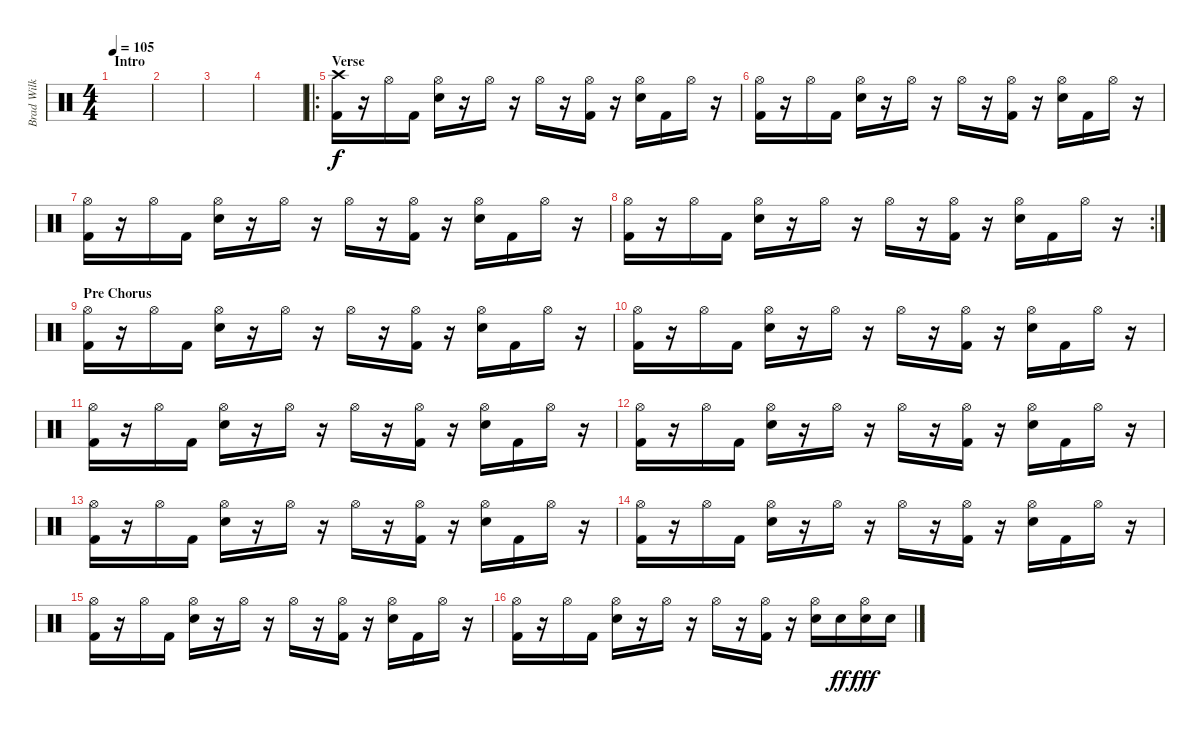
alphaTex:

\track ("Brad Wilk - Drums" "Brad Wilk ") {instrument percussion}
\staff {score}
\articulation defaults
\ts (4 4)
\section ("" "Intro")
\tempo 105
\clef neutral
\ks c
|
|
|
|
\ro
\section ("" "Verse")
("Crash high (hit)" "Kick (hit) 2").16 r.16 "Hi-Hat (open)".16 "Kick (hit) 2".16 ("Hi-Hat (open)" "Electric Snare (hit)").16 r.16 "Hi-Hat (open)".16 r.16 "Hi-Hat (open)".16 r.16 ("Hi-Hat (open)" "Kick (hit) 2").16 r.16 ("Hi-Hat (open)" "Electric Snare (hit)").16 "Kick (hit) 2".16 "Hi-Hat (open)".16 r.16 |
("Hi-Hat (open)" "Kick (hit) 2").16 r.16 "Hi-Hat (open)".16 "Kick (hit) 2".16 ("Hi-Hat (open)" "Electric Snare (hit)").16 r.16 "Hi-Hat (open)".16 r.16 "Hi-Hat (open)".16 r.16 ("Hi-Hat (open)" "Kick (hit) 2").16 r.16 ("Hi-Hat (open)" "Electric Snare (hit)").16 "Kick (hit) 2".16 "Hi-Hat (open)".16 r.16 |
("Hi-Hat (open)" "Kick (hit) 2").16 r.16 "Hi-Hat (open)".16 "Kick (hit) 2".16 ("Hi-Hat (open)" "Electric Snare (hit)").16 r.16 "Hi-Hat (open)".16 r.16 "Hi-Hat (open)".16 r.16 ("Hi-Hat (open)" "Kick (hit) 2").16 r.16 ("Hi-Hat (open)" "Electric Snare (hit)").16 "Kick (hit) 2".16 "Hi-Hat (open)".16 r.16 |
\rc 2
("Hi-Hat (open)" "Kick (hit) 2").16 r.16 "Hi-Hat (open)".16 "Kick (hit) 2".16 ("Hi-Hat (open)" "Electric Snare (hit)").16 r.16 "Hi-Hat (open)".16 r.16 "Hi-Hat (open)".16 r.16 ("Hi-Hat (open)" "Kick (hit) 2").16 r.16 ("Hi-Hat (open)" "Electric Snare (hit)").16 "Kick (hit) 2".16 "Hi-Hat (open)".16 r.16 |
\section ("" "Pre Chorus")
("Hi-Hat (open)" "Kick (hit) 2").16 r.16 "Hi-Hat (open)".16 "Kick (hit) 2".16 ("Hi-Hat (open)" "Electric Snare (hit)").16 r.16 "Hi-Hat (open)".16 r.16 "Hi-Hat (open)".16 r.16 ("Hi-Hat (open)" "Kick (hit) 2").16 r.16 ("Hi-Hat (open)" "Electric Snare (hit)").16 "Kick (hit) 2".16 "Hi-Hat (open)".16 r.16 |
("Hi-Hat (open)" "Kick (hit) 2").16 r.16 "Hi-Hat (open)".16 "Kick (hit) 2".16 ("Hi-Hat (open)" "Electric Snare (hit)").16 r.16 "Hi-Hat (open)".16 r.16 "Hi-Hat (open)".16 r.16 ("Hi-Hat (open)" "Kick (hit) 2").16 r.16 ("Hi-Hat (open)" "Electric Snare (hit)").16 "Kick (hit) 2".16 "Hi-Hat (open)".16 r.16 |
("Hi-Hat (open)" "Kick (hit) 2").16 r.16 "Hi-Hat (open)".16 "Kick (hit) 2".16 ("Hi-Hat (open)" "Electric Snare (hit)").16 r.16 "Hi-Hat (open)".16 r.16 "Hi-Hat (open)".16 r.16 ("Hi-Hat (open)" "Kick (hit) 2").16 r.16 ("Hi-Hat (open)" "Electric Snare (hit)").16 "Kick (hit) 2".16 "Hi-Hat (open)".16 r.16 |
("Hi-Hat (open)" "Kick (hit) 2").16 r.16 "Hi-Hat (open)".16 "Kick (hit) 2".16 ("Hi-Hat (open)" "Electric Snare (hit)").16 r.16 "Hi-Hat (open)".16 r.16 "Hi-Hat (open)".16 r.16 ("Hi-Hat (open)" "Kick (hit) 2").16 r.16 ("Hi-Hat (open)" "Electric Snare (hit)").16 "Kick (hit) 2".16 "Hi-Hat (open)".16 r.16 |
("Hi-Hat (open)" "Kick (hit) 2").16 r.16 "Hi-Hat (open)".16 "Kick (hit) 2".16 ("Hi-Hat (open)" "Electric Snare (hit)").16 r.16 "Hi-Hat (open)".16 r.16 "Hi-Hat (open)".16 r.16 ("Hi-Hat (open)" "Kick (hit) 2").16 r.16 ("Hi-Hat (open)" "Electric Snare (hit)").16 "Kick (hit) 2".16 "Hi-Hat (open)".16 r.16 |
("Hi-Hat (open)" "Kick (hit) 2").16 r.16 "Hi-Hat (open)".16 "Kick (hit) 2".16 ("Hi-Hat (open)" "Electric Snare (hit)").16 r.16 "Hi-Hat (open)".16 r.16 "Hi-Hat (open)".16 r.16 ("Hi-Hat (open)" "Kick (hit) 2").16 r.16 ("Hi-Hat (open)" "Electric Snare (hit)").16 "Kick (hit) 2".16 "Hi-Hat (open)".16 r.16 |
("Hi-Hat (open)" "Kick (hit) 2").16 r.16 "Hi-Hat (open)".16 "Kick (hit) 2".16 ("Hi-Hat (open)" "Electric Snare (hit)").16 r.16 "Hi-Hat (open)".16 r.16 "Hi-Hat (open)".16 r.16 ("Hi-Hat (open)" "Kick (hit) 2").16 r.16 ("Hi-Hat (open)" "Electric Snare (hit)").16 "Kick (hit) 2".16 "Hi-Hat (open)".16 r.16 |
("Hi-Hat (open)" "Kick (hit) 2").16 r.16 "Hi-Hat (open)".16 "Kick (hit) 2".16 ("Hi-Hat (open)" "Electric Snare (hit)").16 r.16 "Hi-Hat (open)".16 r.16 "Hi-Hat (open)".16 r.16 ("Hi-Hat (open)" "Kick (hit) 2").16 r.16 ("Hi-Hat (open)" "Electric Snare (hit)").16 "Electric Snare (hit)".16{dy ff} ("Hi-Hat (open)" "Electric Snare (hit)").16{dy fff} "Electric Snare (hit)".16
